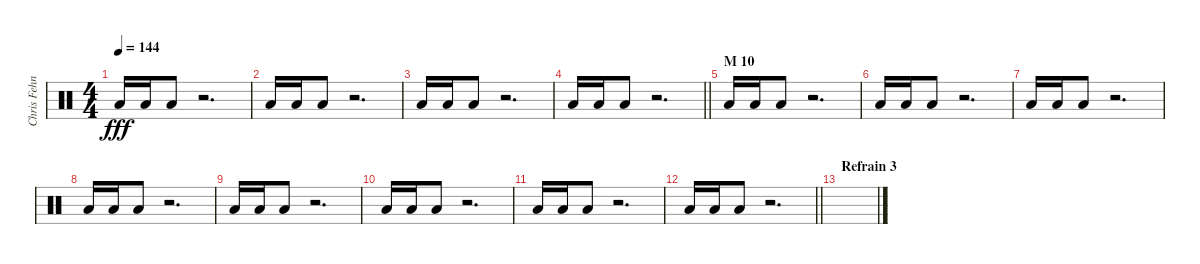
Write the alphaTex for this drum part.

\track ("Chris Fehn" "Chris Fehn") {instrument percussion}
\staff {score}
\articulation defaults
\ts (4 4)
\tempo 144
\clef neutral
\ks c "Low Floor Tom (hit)".16{dy fff} "Low Floor Tom (hit)".16 "Low Floor Tom (hit)".8
r.2{d} |
"Low Floor Tom (hit)".16 "Low Floor Tom (hit)".16 "Low Floor Tom (hit)".8 r.2{d} |
"Low Floor Tom (hit)".16 "Low Floor Tom (hit)".16 "Low Floor Tom (hit)".8 r.2{d} |
\barLineRight lightlight "Low Floor Tom (hit)".16 "Low Floor Tom (hit)".16 "Low Floor Tom (hit)".8
r.2{d} |
\section ("" "M 10")
"Low Floor Tom (hit)".16 "Low Floor Tom (hit)".16 "Low Floor Tom (hit)".8 r.2{d} |
"Low Floor Tom (hit)".16 "Low Floor Tom (hit)".16 "Low Floor Tom (hit)".8 r.2{d} |
"Low Floor Tom (hit)".16 "Low Floor Tom (hit)".16 "Low Floor Tom (hit)".8 r.2{d} |
"Low Floor Tom (hit)".16 "Low Floor Tom (hit)".16 "Low Floor Tom (hit)".8 r.2{d} |
"Low Floor Tom (hit)".16 "Low Floor Tom (hit)".16 "Low Floor Tom (hit)".8 r.2{d} |
"Low Floor Tom (hit)".16 "Low Floor Tom (hit)".16 "Low Floor Tom (hit)".8 r.2{d} |
"Low Floor Tom (hit)".16 "Low Floor Tom (hit)".16 "Low Floor Tom (hit)".8 r.2{d} |
\barLineRight lightlight "Low Floor Tom (hit)".16 "Low Floor Tom (hit)".16 "Low Floor Tom (hit)".8
r.2{d} |
\section ("" "Refrain 3")
